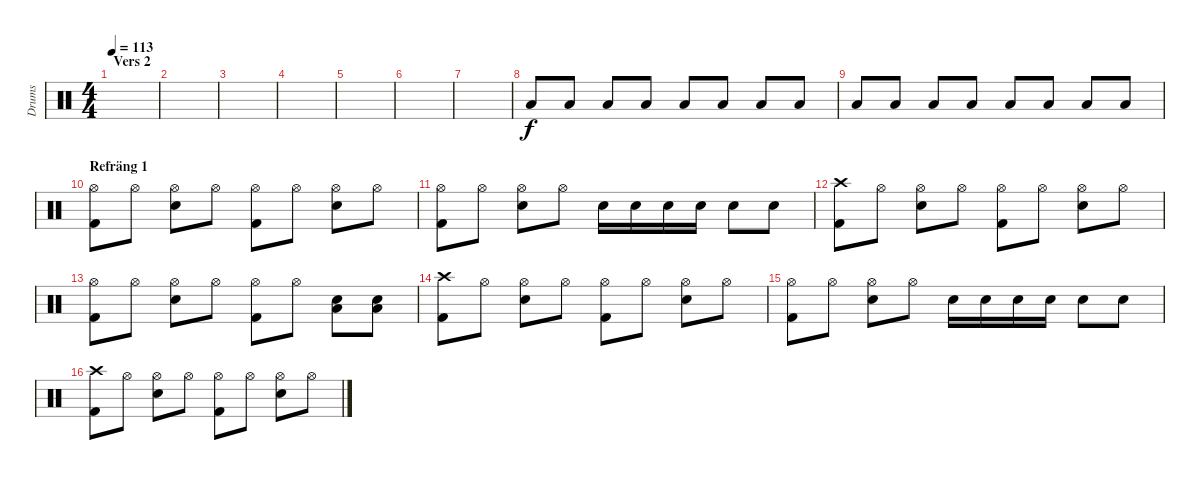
\track ("Drums" "Drums") {instrument percussion}
\staff {score}
\articulation defaults
\ts (4 4)
\section ("" "Vers 2")
\tempo 113
\clef neutral
\ks c
|
|
|
|
|
|
|
"Low Tom (hit)".8 "Low Tom (hit)".8 "Low Tom (hit)".8 "Low Tom (hit)".8 "Low Tom (hit)".8 "Low Tom (hit)".8 "Low Tom (hit)".8 "Low Tom (hit)".8 |
"Low Tom (hit)".8 "Low Tom (hit)".8 "Low Tom (hit)".8 "Low Tom (hit)".8 "Low Tom (hit)".8 "Low Tom (hit)".8 "Low Tom (hit)".8 "Low Tom (hit)".8 |
\section ("" "Refräng 1")
("Hi-Hat (open)" "Kick (hit) 2").8 "Hi-Hat (open)".8 ("Hi-Hat (open)" "Electric Snare (hit)").8 "Hi-Hat (open)".8 ("Hi-Hat (open)" "Kick (hit) 2").8 "Hi-Hat (open)".8 ("Hi-Hat (open)" "Electric Snare (hit)").8 "Hi-Hat (open)".8 |
("Hi-Hat (open)" "Kick (hit) 2").8 "Hi-Hat (open)".8 ("Hi-Hat (open)" "Electric Snare (hit)").8 "Hi-Hat (open)".8 "Electric Snare (hit)".16 "Electric Snare (hit)".16 "Electric Snare (hit)".16 "Electric Snare (hit)".16 "Electric Snare (hit)".8 "Electric Snare (hit)".8 |
("Crash high (hit)" "Kick (hit) 2").8 "Hi-Hat (open)".8 ("Hi-Hat (open)" "Electric Snare (hit)").8 "Hi-Hat (open)".8 ("Hi-Hat (open)" "Kick (hit) 2").8 "Hi-Hat (open)".8 ("Hi-Hat (open)" "Electric Snare (hit)").8 "Hi-Hat (open)".8 |
("Hi-Hat (open)" "Kick (hit) 2").8 "Hi-Hat (open)".8 ("Hi-Hat (open)" "Electric Snare (hit)").8 "Hi-Hat (open)".8 ("Hi-Hat (open)" "Kick (hit) 2").8 "Hi-Hat (open)".8 ("Electric Snare (hit)" "Low Tom (hit)").8 ("Electric Snare (hit)" "Low Tom (hit)").8 |
("Crash high (hit)" "Kick (hit) 2").8 "Hi-Hat (open)".8 ("Hi-Hat (open)" "Electric Snare (hit)").8 "Hi-Hat (open)".8 ("Hi-Hat (open)" "Kick (hit) 2").8 "Hi-Hat (open)".8 ("Hi-Hat (open)" "Electric Snare (hit)").8 "Hi-Hat (open)".8 |
("Hi-Hat (open)" "Kick (hit) 2").8 "Hi-Hat (open)".8 ("Hi-Hat (open)" "Electric Snare (hit)").8 "Hi-Hat (open)".8 "Electric Snare (hit)".16 "Electric Snare (hit)".16 "Electric Snare (hit)".16 "Electric Snare (hit)".16 "Electric Snare (hit)".8 "Electric Snare (hit)".8 |
("Crash high (hit)" "Kick (hit) 2").8 "Hi-Hat (open)".8 ("Hi-Hat (open)" "Electric Snare (hit)").8 "Hi-Hat (open)".8 ("Hi-Hat (open)" "Kick (hit) 2").8 "Hi-Hat (open)".8 ("Hi-Hat (open)" "Electric Snare (hit)").8 "Hi-Hat (open)".8
